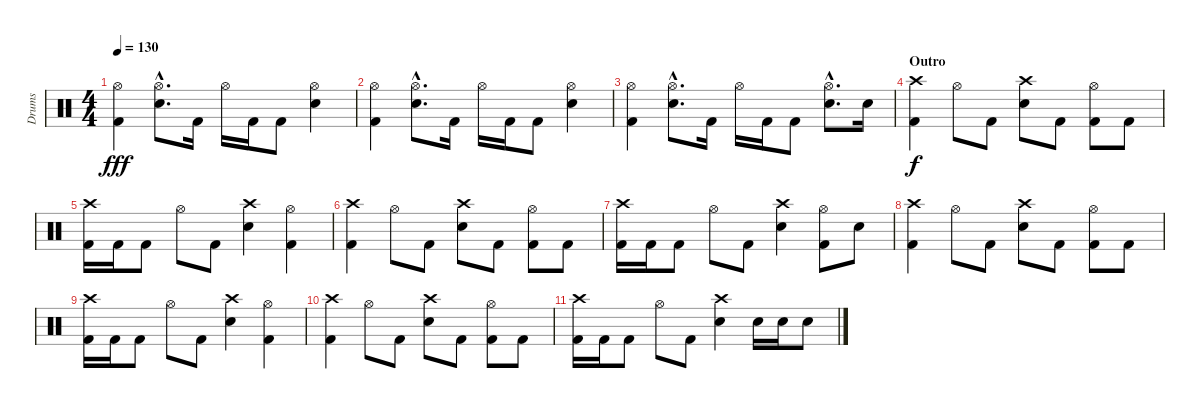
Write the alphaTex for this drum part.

\track ("Drums" "Drums") {instrument percussion}
\staff {score}
\articulation defaults
\ts (4 4)
\tempo 130
\clef neutral
\ks c
("Hi-Hat (open)" "Kick (hit) 2").4{dy fff} ("Hi-Hat (open)"{hac} "Electric Snare (hit)"{hac}).8{d} "Kick (hit) 2".16 "Hi-Hat (open)".16 "Kick (hit) 2".16 "Kick (hit) 2".8 ("Hi-Hat (open)" "Electric Snare (hit)").4 |
("Hi-Hat (open)" "Kick (hit) 2").4 ("Hi-Hat (open)"{hac} "Electric Snare (hit)"{hac}).8{d} "Kick (hit) 2".16 "Hi-Hat (open)".16 "Kick (hit) 2".16 "Kick (hit) 2".8 ("Hi-Hat (open)" "Electric Snare (hit)").4 |
("Hi-Hat (open)" "Kick (hit) 2").4 ("Hi-Hat (open)"{hac} "Electric Snare (hit)"{hac}).8{d} "Kick (hit) 2".16 "Hi-Hat (open)".16 "Kick (hit) 2".16 "Kick (hit) 2".8 ("Hi-Hat (open)"{hac} "Electric Snare (hit)"{hac}).8{d} "Electric Snare (hit)".16 |
\section ("" "Outro")
("Crash high (hit)" "Kick (hit) 2").4{dy f} "Hi-Hat (open)".8 "Kick (hit) 2".8 ("Crash high (hit)" "Electric Snare (hit)").8 "Kick (hit) 2".8 ("Hi-Hat (open)" "Kick (hit) 2").8 "Kick (hit) 2".8 |
("Crash high (hit)" "Kick (hit) 2").16 "Kick (hit) 2".16 "Kick (hit) 2".8 "Hi-Hat (open)".8 "Kick (hit) 2".8 ("Crash high (hit)" "Electric Snare (hit)").4 ("Hi-Hat (open)" "Kick (hit) 2").4 |
("Crash high (hit)" "Kick (hit) 2").4 "Hi-Hat (open)".8 "Kick (hit) 2".8 ("Crash high (hit)" "Electric Snare (hit)").8 "Kick (hit) 2".8 ("Hi-Hat (open)" "Kick (hit) 2").8 "Kick (hit) 2".8 |
("Crash high (hit)" "Kick (hit) 2").16 "Kick (hit) 2".16 "Kick (hit) 2".8 "Hi-Hat (open)".8 "Kick (hit) 2".8 ("Crash high (hit)" "Electric Snare (hit)").4 ("Hi-Hat (open)" "Kick (hit) 2").8 "Electric Snare (hit)".8 |
("Crash high (hit)" "Kick (hit) 2").4 "Hi-Hat (open)".8 "Kick (hit) 2".8 ("Crash high (hit)" "Electric Snare (hit)").8 "Kick (hit) 2".8 ("Hi-Hat (open)" "Kick (hit) 2").8 "Kick (hit) 2".8 |
("Crash high (hit)" "Kick (hit) 2").16 "Kick (hit) 2".16 "Kick (hit) 2".8 "Hi-Hat (open)".8 "Kick (hit) 2".8 ("Crash high (hit)" "Electric Snare (hit)").4 ("Hi-Hat (open)" "Kick (hit) 2").4 |
("Crash high (hit)" "Kick (hit) 2").4 "Hi-Hat (open)".8 "Kick (hit) 2".8 ("Crash high (hit)" "Electric Snare (hit)").8 "Kick (hit) 2".8 ("Hi-Hat (open)" "Kick (hit) 2").8 "Kick (hit) 2".8 |
("Crash high (hit)" "Kick (hit) 2").16 "Kick (hit) 2".16 "Kick (hit) 2".8 "Hi-Hat (open)".8 "Kick (hit) 2".8 ("Crash high (hit)" "Electric Snare (hit)").4 "Electric Snare (hit)".16 "Electric Snare (hit)".16 "Electric Snare (hit)".8
